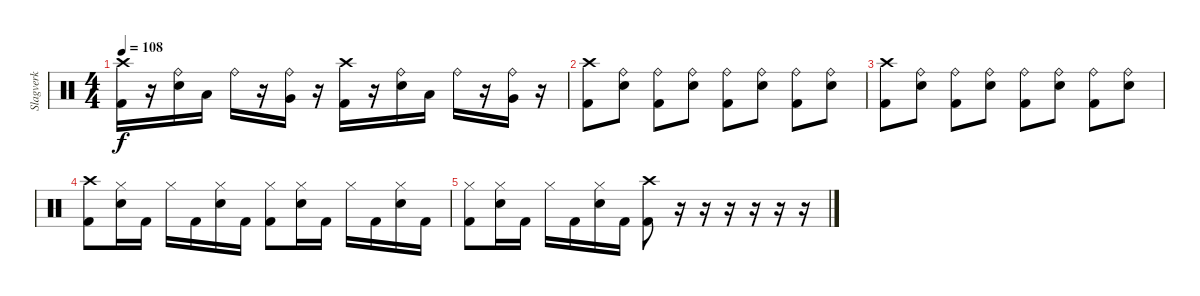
\track ("Slagverk" "Slagverk") {instrument percussion}
\staff {score}
\articulation defaults
\ts (4 4)
\tempo 108
\clef neutral
\ks c
("Crash high (hit)" "Kick (hit) 2").16{dy f} r.16 ("Ride (bell)" "Electric Snare (hit)").16 "Low Tom (hit)".16 "Ride (bell)".16 r.16 ("Ride (bell)" "Very Low Tom (hit)").16 r.16 ("Crash high (hit)" "Kick (hit) 2").16 r.16 ("Ride (bell)" "Electric Snare (hit)").16 "Low Tom (hit)".16 "Ride (bell)".16 r.16 ("Ride (bell)" "Very Low Tom (hit)").16 r.16 |
("Crash high (hit)" "Kick (hit) 2").8 ("Ride (bell)" "Electric Snare (hit)").8 ("Ride (bell)" "Kick (hit) 2").8 ("Ride (bell)" "Electric Snare (hit)").8 ("Ride (bell)" "Kick (hit) 2").8 ("Ride (bell)" "Electric Snare (hit)").8 ("Ride (bell)" "Kick (hit) 2").8 ("Ride (bell)" "Electric Snare (hit)").8 |
("Crash high (hit)" "Kick (hit) 2").8 ("Ride (bell)" "Electric Snare (hit)").8 ("Ride (bell)" "Kick (hit) 2").8 ("Ride (bell)" "Electric Snare (hit)").8 ("Ride (bell)" "Kick (hit) 2").8 ("Ride (bell)" "Electric Snare (hit)").8 ("Ride (bell)" "Kick (hit) 2").8 ("Ride (bell)" "Electric Snare (hit)").8 |
("Crash high (hit)" "Kick (hit) 2").8 ("Hi-Hat (closed)" "Electric Snare (hit)").16 "Kick (hit) 2".16 "Hi-Hat (closed)".16 "Kick (hit) 2".16 ("Hi-Hat (closed)" "Electric Snare (hit)").16 "Kick (hit) 2".16 ("Hi-Hat (closed)" "Kick (hit) 2").8 ("Hi-Hat (closed)" "Electric Snare (hit)").16 "Kick (hit) 2".16 "Hi-Hat (closed)".16 "Kick (hit) 2".16 ("Hi-Hat (closed)" "Electric Snare (hit)").16 "Kick (hit) 2".16 |
("Hi-Hat (closed)" "Kick (hit) 2").8 ("Hi-Hat (closed)" "Electric Snare (hit)").16 "Kick (hit) 2".16 "Hi-Hat (closed)".16 "Kick (hit) 2".16 ("Hi-Hat (closed)" "Electric Snare (hit)").16 "Kick (hit) 2".16 ("Crash high (hit)" "Kick (hit) 2").8 r.16 r.16 r.16 r.16 r.16 r.16
